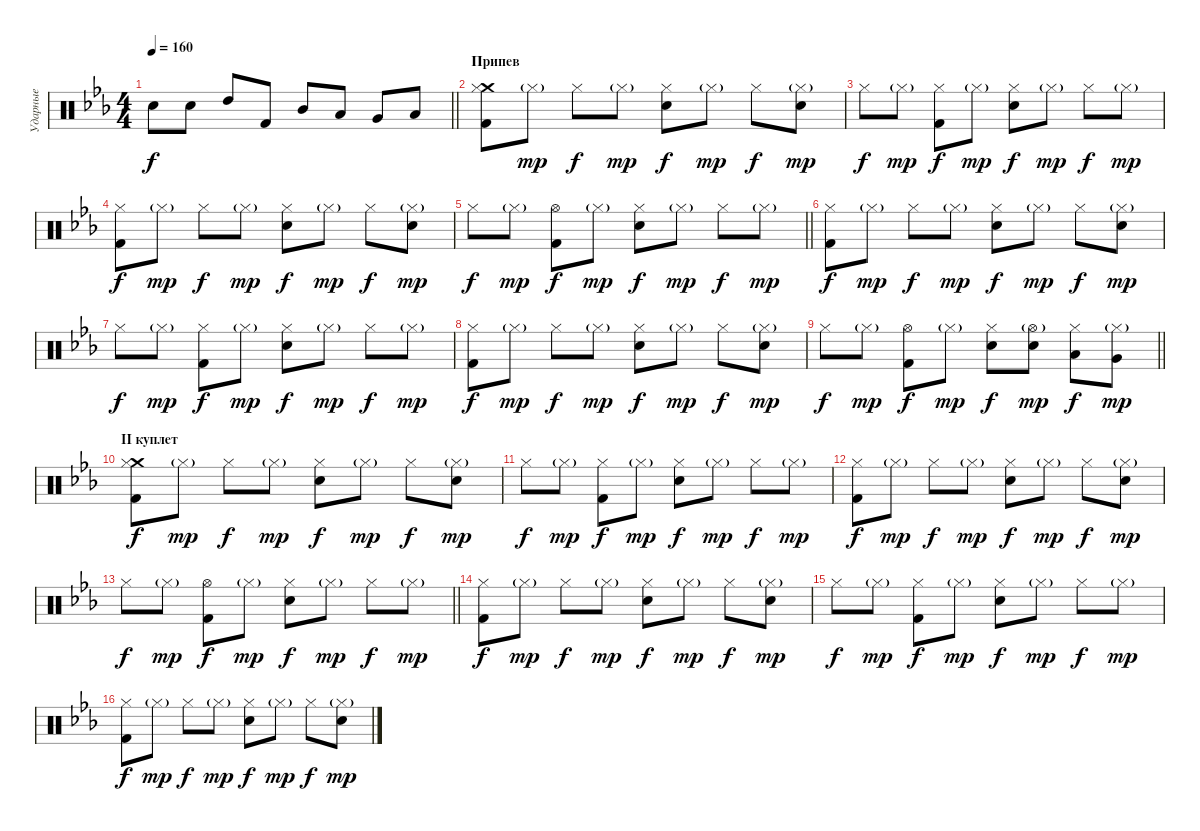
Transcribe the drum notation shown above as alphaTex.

\track ("Ударные" "Ударные") {instrument percussion}
\staff {score}
\articulation defaults
\ts (4 4)
\tempo 160
\clef neutral
\barLineRight lightlight
\ks cminor "Electric Snare (hit)".8{dy f} "Electric Snare (hit)".8 "High Tom (hit)".8 "Kick (hit) 2".8 "Mid Tom (hit)".8 "Low Tom (hit)".8 "Very Low Tom (hit)".8 "Low Floor Tom (hit)".8
|
\section ("" "Припев")
("Crash medium (hit)" "Kick (hit) 2" "Hi-Hat (closed)").8 "Hi-Hat (closed)"{g}.8{dy mp} "Hi-Hat (closed)".8{dy f} "Hi-Hat (closed)"{g}.8{dy mp} ("Electric Snare (hit)" "Hi-Hat (closed)").8{dy f} "Hi-Hat (closed)"{g}.8{dy mp} "Hi-Hat (closed)".8{dy f} ("Electric Snare (hit)" "Hi-Hat (closed)"{g}).8{dy mp} |
"Hi-Hat (closed)".8{dy f} "Hi-Hat (closed)"{g}.8{dy mp} ("Kick (hit) 2" "Hi-Hat (closed)").8{dy f} "Hi-Hat (closed)"{g}.8{dy mp} ("Electric Snare (hit)" "Hi-Hat (closed)").8{dy f} "Hi-Hat (closed)"{g}.8{dy mp} "Hi-Hat (closed)".8{dy f} "Hi-Hat (closed)"{g}.8{dy mp} |
("Kick (hit) 2" "Hi-Hat (closed)").8{dy f} "Hi-Hat (closed)"{g}.8{dy mp} "Hi-Hat (closed)".8{dy f} "Hi-Hat (closed)"{g}.8{dy mp} ("Electric Snare (hit)" "Hi-Hat (closed)").8{dy f} "Hi-Hat (closed)"{g}.8{dy mp} "Hi-Hat (closed)".8{dy f} ("Electric Snare (hit)" "Hi-Hat (closed)"{g}).8{dy mp} |
\barLineRight lightlight "Hi-Hat (closed)".8{dy f} "Hi-Hat (closed)"{g}.8{dy mp}
("Kick (hit) 2" "Hi-Hat (open)").8{dy f} "Hi-Hat (closed)"{g}.8{dy mp} ("Electric Snare (hit)" "Hi-Hat (closed)").8{dy f} "Hi-Hat (closed)"{g}.8{dy mp} "Hi-Hat (closed)".8{dy f} "Hi-Hat (closed)"{g}.8{dy mp} |
("Kick (hit) 2" "Hi-Hat (closed)").8{dy f} "Hi-Hat (closed)"{g}.8{dy mp} "Hi-Hat (closed)".8{dy f} "Hi-Hat (closed)"{g}.8{dy mp} ("Electric Snare (hit)" "Hi-Hat (closed)").8{dy f} "Hi-Hat (closed)"{g}.8{dy mp} "Hi-Hat (closed)".8{dy f} ("Electric Snare (hit)" "Hi-Hat (closed)"{g}).8{dy mp} |
"Hi-Hat (closed)".8{dy f} "Hi-Hat (closed)"{g}.8{dy mp} ("Kick (hit) 2" "Hi-Hat (closed)").8{dy f} "Hi-Hat (closed)"{g}.8{dy mp} ("Electric Snare (hit)" "Hi-Hat (closed)").8{dy f} "Hi-Hat (closed)"{g}.8{dy mp} "Hi-Hat (closed)".8{dy f} "Hi-Hat (closed)"{g}.8{dy mp} |
("Kick (hit) 2" "Hi-Hat (closed)").8{dy f} "Hi-Hat (closed)"{g}.8{dy mp} "Hi-Hat (closed)".8{dy f} "Hi-Hat (closed)"{g}.8{dy mp} ("Electric Snare (hit)" "Hi-Hat (closed)").8{dy f} "Hi-Hat (closed)"{g}.8{dy mp} "Hi-Hat (closed)".8{dy f} ("Electric Snare (hit)" "Hi-Hat (closed)"{g}).8{dy mp} |
\barLineRight lightlight "Hi-Hat (closed)".8{dy f} "Hi-Hat (closed)"{g}.8{dy mp}
("Kick (hit) 2" "Hi-Hat (open)").8{dy f} "Hi-Hat (closed)"{g}.8{dy mp} ("Electric Snare (hit)" "Hi-Hat (closed)").8{dy f} ("Electric Snare (hit)" "Hi-Hat (open)"{g}).8{dy mp} ("Low Tom (hit)" "Hi-Hat (closed)").8{dy f} ("Very Low Tom (hit)" "Hi-Hat (closed)"{g}).8{dy mp} |
\section ("" "II куплет")
("Crash medium (hit)" "Kick (hit) 2" "Hi-Hat (closed)").8{dy f} "Hi-Hat (closed)"{g}.8{dy mp} "Hi-Hat (closed)".8{dy f} "Hi-Hat (closed)"{g}.8{dy mp} ("Electric Snare (hit)" "Hi-Hat (closed)").8{dy f} "Hi-Hat (closed)"{g}.8{dy mp} "Hi-Hat (closed)".8{dy f} ("Electric Snare (hit)" "Hi-Hat (closed)"{g}).8{dy mp} |
"Hi-Hat (closed)".8{dy f} "Hi-Hat (closed)"{g}.8{dy mp} ("Kick (hit) 2" "Hi-Hat (closed)").8{dy f} "Hi-Hat (closed)"{g}.8{dy mp} ("Electric Snare (hit)" "Hi-Hat (closed)").8{dy f} "Hi-Hat (closed)"{g}.8{dy mp} "Hi-Hat (closed)".8{dy f} "Hi-Hat (closed)"{g}.8{dy mp} |
("Kick (hit) 2" "Hi-Hat (closed)").8{dy f} "Hi-Hat (closed)"{g}.8{dy mp} "Hi-Hat (closed)".8{dy f} "Hi-Hat (closed)"{g}.8{dy mp} ("Electric Snare (hit)" "Hi-Hat (closed)").8{dy f} "Hi-Hat (closed)"{g}.8{dy mp} "Hi-Hat (closed)".8{dy f} ("Electric Snare (hit)" "Hi-Hat (closed)"{g}).8{dy mp} |
\barLineRight lightlight "Hi-Hat (closed)".8{dy f} "Hi-Hat (closed)"{g}.8{dy mp}
("Kick (hit) 2" "Hi-Hat (open)").8{dy f} "Hi-Hat (closed)"{g}.8{dy mp} ("Electric Snare (hit)" "Hi-Hat (closed)").8{dy f} "Hi-Hat (closed)"{g}.8{dy mp} "Hi-Hat (closed)".8{dy f} "Hi-Hat (closed)"{g}.8{dy mp} |
("Kick (hit) 2" "Hi-Hat (closed)").8{dy f} "Hi-Hat (closed)"{g}.8{dy mp} "Hi-Hat (closed)".8{dy f} "Hi-Hat (closed)"{g}.8{dy mp} ("Electric Snare (hit)" "Hi-Hat (closed)").8{dy f} "Hi-Hat (closed)"{g}.8{dy mp} "Hi-Hat (closed)".8{dy f} ("Electric Snare (hit)" "Hi-Hat (closed)"{g}).8{dy mp} |
"Hi-Hat (closed)".8{dy f} "Hi-Hat (closed)"{g}.8{dy mp} ("Kick (hit) 2" "Hi-Hat (closed)").8{dy f} "Hi-Hat (closed)"{g}.8{dy mp} ("Electric Snare (hit)" "Hi-Hat (closed)").8{dy f} "Hi-Hat (closed)"{g}.8{dy mp} "Hi-Hat (closed)".8{dy f} "Hi-Hat (closed)"{g}.8{dy mp} |
("Kick (hit) 2" "Hi-Hat (closed)").8{dy f} "Hi-Hat (closed)"{g}.8{dy mp} "Hi-Hat (closed)".8{dy f} "Hi-Hat (closed)"{g}.8{dy mp} ("Electric Snare (hit)" "Hi-Hat (closed)").8{dy f} "Hi-Hat (closed)"{g}.8{dy mp} "Hi-Hat (closed)".8{dy f} ("Electric Snare (hit)" "Hi-Hat (closed)"{g}).8{dy mp}
